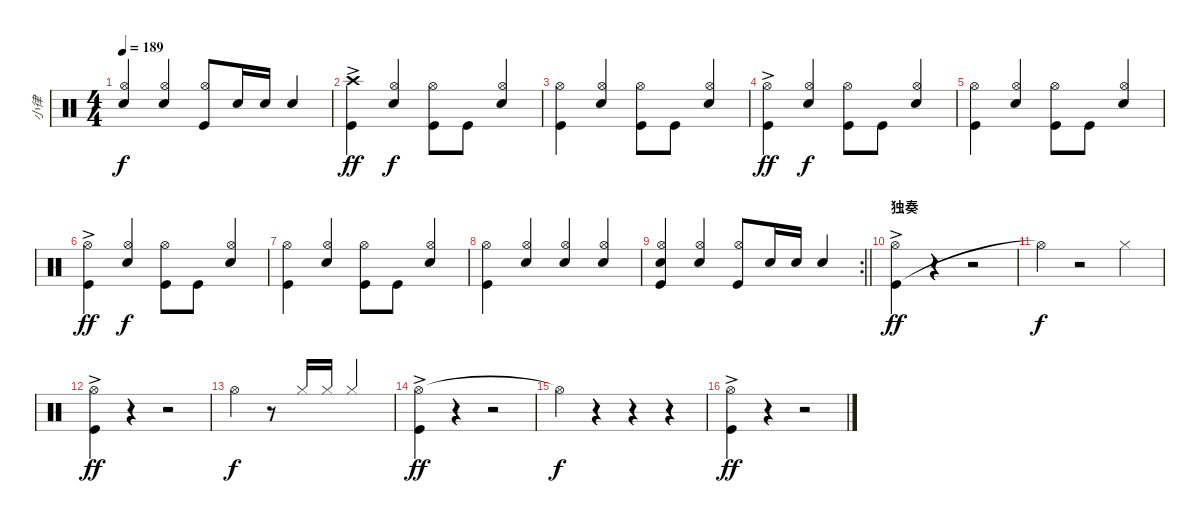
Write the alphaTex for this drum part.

\track ("小律" "小律") {instrument percussion}
\staff {score}
\articulation defaults
\ts (4 4)
\tempo 189
\clef neutral
\ks c
("Hi-Hat (open)" "Snare (hit) 2").4{dy f beam Up} ("Hi-Hat (open)" "Snare (hit) 2").4{beam Up} ("Hi-Hat (open)" "Kick (hit)").8{beam Up} "Snare (hit) 2".16{beam Up} "Snare (hit) 2".16{beam Up} "Snare (hit) 2".4{beam Up} |
("Kick (hit)" "Crash high (hit)"{ac}).4{dy ff} ("Snare (hit) 2" "Hi-Hat (open)").4{dy f beam Up} ("Hi-Hat (open)" "Kick (hit)").8 "Kick (hit)".8 ("Snare (hit) 2" "Hi-Hat (open)").4{beam Up} |
("Hi-Hat (open)" "Kick (hit)").4 ("Hi-Hat (open)" "Snare (hit) 2").4{beam Up} ("Hi-Hat (open)" "Kick (hit)").8 "Kick (hit)".8 ("Hi-Hat (open)" "Snare (hit) 2").4{beam Up} |
("Kick (hit)" "Hi-Hat (open)"{ac}).4{dy ff} ("Snare (hit) 2" "Hi-Hat (open)").4{dy f beam Up} ("Hi-Hat (open)" "Kick (hit)").8 "Kick (hit)".8 ("Snare (hit) 2" "Hi-Hat (open)").4{beam Up} |
("Hi-Hat (open)" "Kick (hit)").4 ("Hi-Hat (open)" "Snare (hit) 2").4{beam Up} ("Hi-Hat (open)" "Kick (hit)").8 "Kick (hit)".8 ("Hi-Hat (open)" "Snare (hit) 2").4{beam Up} |
("Kick (hit)" "Hi-Hat (open)"{ac}).4{dy ff} ("Snare (hit) 2" "Hi-Hat (open)").4{dy f beam Up} ("Hi-Hat (open)" "Kick (hit)").8 "Kick (hit)".8 ("Snare (hit) 2" "Hi-Hat (open)").4{beam Up} |
("Hi-Hat (open)" "Kick (hit)").4 ("Hi-Hat (open)" "Snare (hit) 2").4{beam Up} ("Hi-Hat (open)" "Kick (hit)").8 "Kick (hit)".8 ("Hi-Hat (open)" "Snare (hit) 2").4{beam Up} |
("Kick (hit)" "Hi-Hat (open)").4 ("Hi-Hat (open)" "Snare (hit) 2").4{beam Up} ("Hi-Hat (open)" "Snare (hit) 2").4{beam Up} ("Hi-Hat (open)" "Snare (hit) 2").4{beam Up} |
\rc 2
\barLineRight lightlight
("Hi-Hat (open)" "Snare (hit) 2" "Kick (hit)").4{beam Up} ("Hi-Hat (open)" "Snare (hit) 2").4{beam Up} ("Hi-Hat (open)" "Kick (hit)").8{beam Up} "Snare (hit) 2".16{beam Up} "Snare (hit) 2".16{beam Up} "Snare (hit) 2".4{beam Up} |
\section ("" "独奏")
("Kick (hit)" "Hi-Hat (open)"{ac}).4{dy ff} r.4 r.2 |
"Hi-Hat (open)"{t}.4{dy f} r.2 "Hi-Hat (closed)".4 |
("Kick (hit)"{ac} "Hi-Hat (open)").4{dy ff} r.4 r.2 |
"Hi-Hat (open)".4{dy f} r.8{beam Up} "Hi-Hat (closed)".16{beam Up} "Hi-Hat (closed)".16{beam Up} "Hi-Hat (closed)".2{beam Up} |
("Hi-Hat (open)" "Kick (hit)"{ac}).4{dy ff} r.4 r.2 |
"Hi-Hat (open)"{t}.4{dy f} r.4 r.4 r.4 |
("Hi-Hat (open)"{ac} "Kick (hit)").4{dy ff} r.4 r.2
